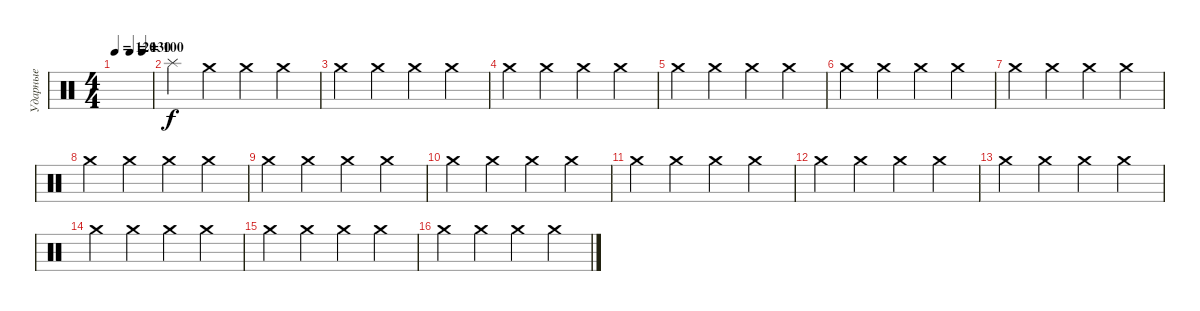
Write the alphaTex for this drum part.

\track ("Ударные" "Ударные") {instrument percussion}
\staff {score}
\articulation defaults
\ts (4 4)
\tempo 120
\tempo (130 0.40625)
\tempo (100 0.75)
\clef neutral
\ks c
|
"Splash (hit)".4 "Crash medium (hit)".4 "Crash medium (hit)".4 "Crash medium (hit)".4 |
"Crash medium (hit)".4 "Crash medium (hit)".4 "Crash medium (hit)".4 "Crash medium (hit)".4 |
"Crash medium (hit)".4 "Crash medium (hit)".4 "Crash medium (hit)".4 "Crash medium (hit)".4 |
"Crash medium (hit)".4 "Crash medium (hit)".4 "Crash medium (hit)".4 "Crash medium (hit)".4 |
"Crash medium (hit)".4 "Crash medium (hit)".4 "Crash medium (hit)".4 "Crash medium (hit)".4 |
"Crash medium (hit)".4 "Crash medium (hit)".4 "Crash medium (hit)".4 "Crash medium (hit)".4 |
"Crash medium (hit)".4 "Crash medium (hit)".4 "Crash medium (hit)".4 "Crash medium (hit)".4 |
"Crash medium (hit)".4 "Crash medium (hit)".4 "Crash medium (hit)".4 "Crash medium (hit)".4 |
"Crash medium (hit)".4 "Crash medium (hit)".4 "Crash medium (hit)".4 "Crash medium (hit)".4 |
"Crash medium (hit)".4 "Crash medium (hit)".4 "Crash medium (hit)".4 "Crash medium (hit)".4 |
"Crash medium (hit)".4 "Crash medium (hit)".4 "Crash medium (hit)".4 "Crash medium (hit)".4 |
"Crash medium (hit)".4 "Crash medium (hit)".4 "Crash medium (hit)".4 "Crash medium (hit)".4 |
"Crash medium (hit)".4 "Crash medium (hit)".4 "Crash medium (hit)".4 "Crash medium (hit)".4 |
"Crash medium (hit)".4 "Crash medium (hit)".4 "Crash medium (hit)".4 "Crash medium (hit)".4 |
"Crash medium (hit)".4 "Crash medium (hit)".4 "Crash medium (hit)".4 "Crash medium (hit)".4
